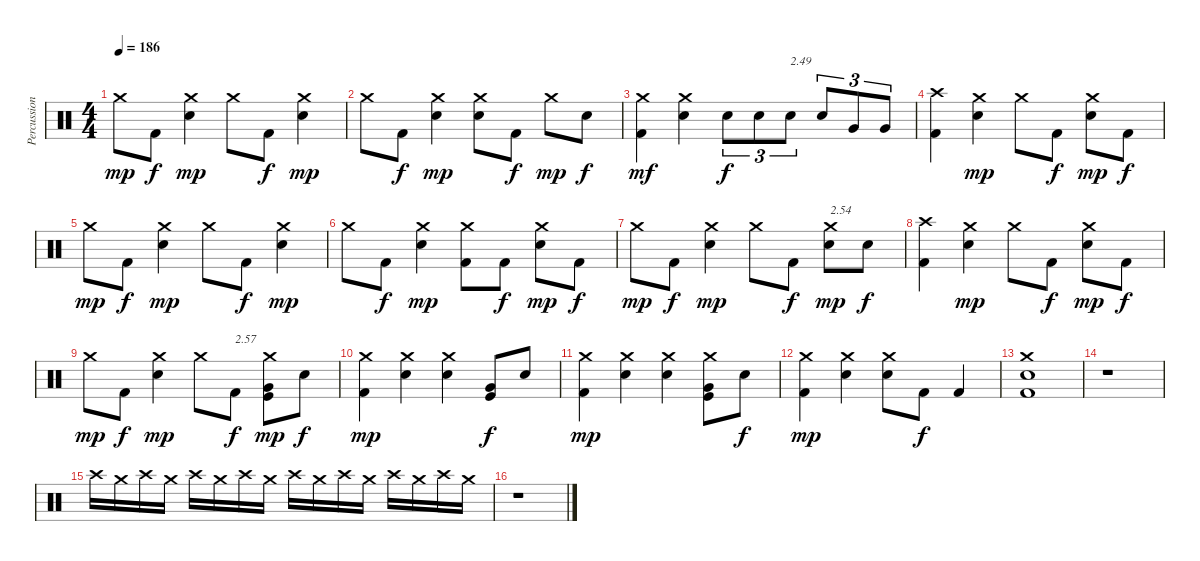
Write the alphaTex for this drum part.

\track ("Percussions" "Percussion") {instrument percussion}
\staff {score}
\articulation defaults
\ts (4 4)
\tempo 186
\clef neutral
\ks c "Crash medium (hit)".8{dy mp} "Kick (hit) 2".8{dy f}
("Electric Snare (hit)" "Crash medium (hit)").4{dy mp} "Crash medium (hit)".8 "Kick (hit) 2".8{dy f} ("Electric Snare (hit)" "Crash medium (hit)").4{dy mp} |
"Crash medium (hit)".8 "Kick (hit) 2".8{dy f} ("Electric Snare (hit)" "Crash medium (hit)").4{dy mp} ("Electric Snare (hit)" "Crash medium (hit)").8 "Kick (hit) 2".8{dy f} "Crash medium (hit)".8{dy mp} "Electric Snare (hit)".8{dy f} |
("Kick (hit) 2" "Crash medium (hit)").4{dy mf} ("Electric Snare (hit)" "Crash medium (hit)").4 "Electric Snare (hit)".8{tu (3 2) dy f} "Electric Snare (hit)".8{tu (3 2)} "Electric Snare (hit)".8{tu (3 2) txt "2.49"} "Electric Snare (hit)".8{tu (3 2)} "Very Low Tom (hit)".8{tu (3 2)} "Very Low Tom (hit)".8{tu (3 2)} |
("Kick (hit) 2" "Crash high (hit)").4 ("Electric Snare (hit)" "Crash medium (hit)").4{dy mp} "Crash medium (hit)".8 "Kick (hit) 2".8{dy f} ("Electric Snare (hit)" "Crash medium (hit)").8{dy mp} "Kick (hit) 2".8{dy f} |
"Crash medium (hit)".8{dy mp} "Kick (hit) 2".8{dy f} ("Electric Snare (hit)" "Crash medium (hit)").4{dy mp} "Crash medium (hit)".8 "Kick (hit) 2".8{dy f} ("Electric Snare (hit)" "Crash medium (hit)").4{dy mp} |
"Crash medium (hit)".8 "Kick (hit) 2".8{dy f} ("Electric Snare (hit)" "Crash medium (hit)").4{dy mp} ("Kick (hit) 2" "Crash medium (hit)").8 "Kick (hit) 2".8{dy f} ("Electric Snare (hit)" "Crash medium (hit)").8{dy mp} "Kick (hit) 2".8{dy f} |
"Crash medium (hit)".8{dy mp} "Kick (hit) 2".8{dy f} ("Electric Snare (hit)" "Crash medium (hit)").4{dy mp} "Crash medium (hit)".8 "Kick (hit) 2".8{dy f} ("Electric Snare (hit)" "Crash medium (hit)").8{txt "2.54" dy mp} "Electric Snare (hit)".8{dy f} |
("Kick (hit) 2" "Crash high (hit)").4 ("Electric Snare (hit)" "Crash medium (hit)").4{dy mp} "Crash medium (hit)".8 "Kick (hit) 2".8{dy f} ("Electric Snare (hit)" "Crash medium (hit)").8{dy mp} "Kick (hit) 2".8{dy f} |
"Crash medium (hit)".8{dy mp} "Kick (hit) 2".8{dy f} ("Electric Snare (hit)" "Crash medium (hit)").4{dy mp} "Crash medium (hit)".8 "Kick (hit) 2".8{txt "2.57" dy f} ("Kick (hit)" "Very Low Tom (hit)" "Crash medium (hit)").8{dy mp} "Electric Snare (hit)".8{dy f} |
("Kick (hit) 2" "Crash medium (hit)").4{dy mp} ("Electric Snare (hit)" "Crash medium (hit)").4 ("Electric Snare (hit)" "Crash medium (hit)").4 ("Kick (hit)" "Very Low Tom (hit)").8{dy f} "Electric Snare (hit)".8 |
("Kick (hit) 2" "Crash medium (hit)").4{dy mp} ("Electric Snare (hit)" "Crash medium (hit)").4 ("Electric Snare (hit)" "Crash medium (hit)").4 ("Kick (hit)" "Very Low Tom (hit)" "Crash medium (hit)").8 "Electric Snare (hit)".8{dy f} |
("Kick (hit) 2" "Crash medium (hit)").4{dy mp} ("Electric Snare (hit)" "Crash medium (hit)").4 ("Electric Snare (hit)" "Crash medium (hit)").8 "Kick (hit) 2".8{dy f} "Kick (hit) 2".4 |
("Kick (hit) 2" "Electric Snare (hit)" "Crash medium (hit)").1 |
r.1 |
"Crash high (hit)".16{volume 6} "Crash medium (hit)".16{volume 10} "Crash high (hit)".16 "Crash medium (hit)".16 "Crash high (hit)".16 "Crash medium (hit)".16 "Crash high (hit)".16 "Crash medium (hit)".16 "Crash high (hit)".16{volume 4} "Crash medium (hit)".16 "Crash high (hit)".16 "Crash medium (hit)".16 "Crash high (hit)".16 "Crash medium (hit)".16 "Crash high (hit)".16 "Crash medium (hit)".16 |
r.1
